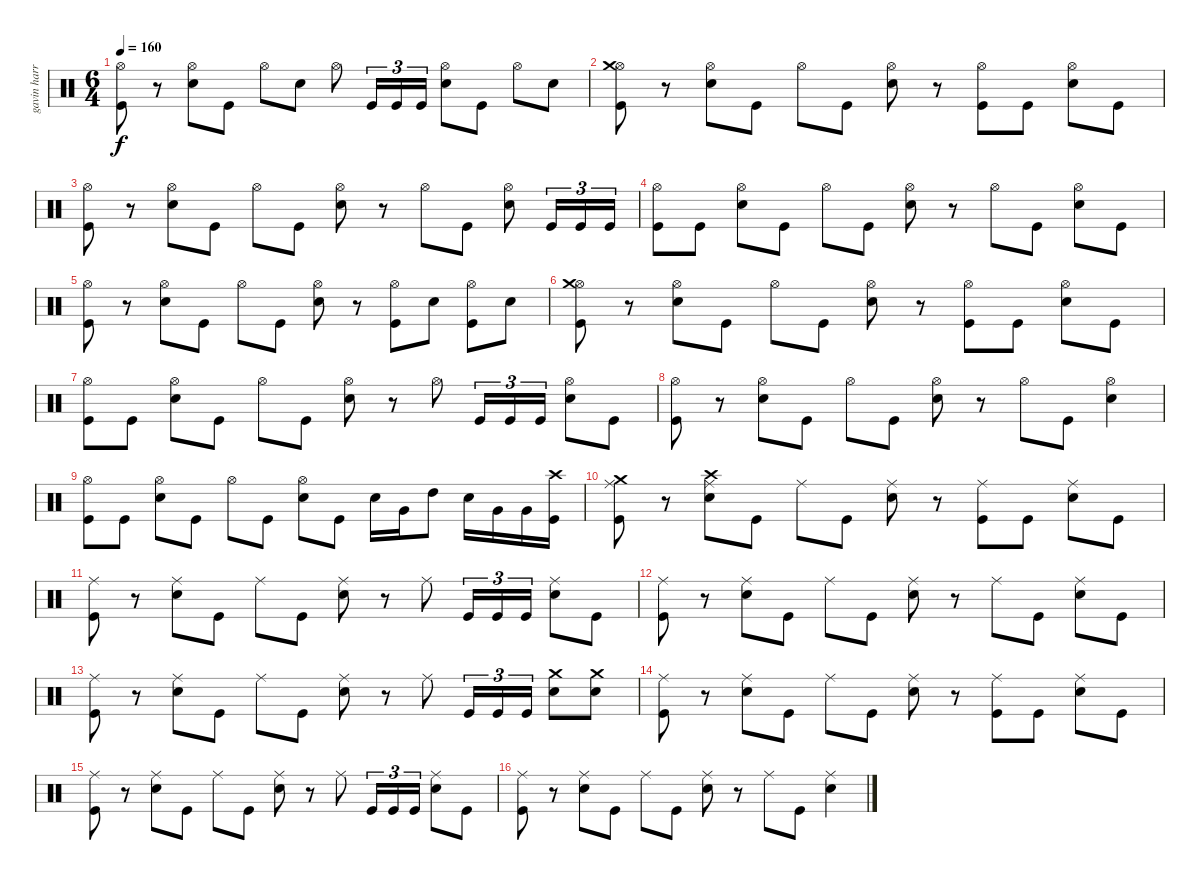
\track ("gavin harrison ( drum ) " "gavin harr") {instrument percussion}
\staff {score}
\articulation defaults
\ts (6 4)
\tempo 160
\clef neutral
\ks c
("Hi-Hat (open)" "Kick (hit)").8{dy f} r.8 ("Hi-Hat (open)" "Snare (hit) 2").8 "Kick (hit)".8 "Hi-Hat (open)".8 "Snare (hit) 2".8 "Hi-Hat (open)".8 "Kick (hit)".16{tu (3 2)} "Kick (hit)".16{tu (3 2)} "Kick (hit)".16{tu (3 2)} ("Hi-Hat (open)" "Snare (hit) 2").8 "Kick (hit)".8 "Hi-Hat (open)".8 "Snare (hit) 2".8 |
("Hi-Hat (open)" "Crash medium (hit)" "Kick (hit)").8 r.8 ("Hi-Hat (open)" "Snare (hit) 2").8 "Kick (hit)".8 "Hi-Hat (open)".8 "Kick (hit)".8 ("Hi-Hat (open)" "Snare (hit) 2").8 r.8 ("Hi-Hat (open)" "Kick (hit)").8 "Kick (hit)".8 ("Hi-Hat (open)" "Snare (hit) 2").8 "Kick (hit)".8 |
("Hi-Hat (open)" "Kick (hit)").8 r.8 ("Hi-Hat (open)" "Snare (hit) 2").8 "Kick (hit)".8 "Hi-Hat (open)".8 "Kick (hit)".8 ("Hi-Hat (open)" "Snare (hit) 2").8 r.8 "Hi-Hat (open)".8 "Kick (hit)".8 ("Hi-Hat (open)" "Snare (hit) 2").8 "Kick (hit)".16{tu (3 2)} "Kick (hit)".16{tu (3 2)} "Kick (hit)".16{tu (3 2)} |
("Hi-Hat (open)" "Kick (hit)").8 "Kick (hit)".8 ("Hi-Hat (open)" "Snare (hit) 2").8 "Kick (hit)".8 "Hi-Hat (open)".8 "Kick (hit)".8 ("Hi-Hat (open)" "Snare (hit) 2").8 r.8 "Hi-Hat (open)".8 "Kick (hit)".8 ("Hi-Hat (open)" "Snare (hit) 2").8 "Kick (hit)".8 |
("Hi-Hat (open)" "Kick (hit)").8 r.8 ("Hi-Hat (open)" "Snare (hit) 2").8 "Kick (hit)".8 "Hi-Hat (open)".8 "Kick (hit)".8 ("Hi-Hat (open)" "Snare (hit) 2").8 r.8 ("Hi-Hat (open)" "Kick (hit)").8 "Snare (hit) 2".8 ("Hi-Hat (open)" "Kick (hit)").8 "Snare (hit) 2".8 |
("Hi-Hat (open)" "Crash medium (hit)" "Kick (hit)").8 r.8 ("Hi-Hat (open)" "Snare (hit) 2").8 "Kick (hit)".8 "Hi-Hat (open)".8 "Kick (hit)".8 ("Hi-Hat (open)" "Snare (hit) 2").8 r.8 ("Hi-Hat (open)" "Kick (hit)").8 "Kick (hit)".8 ("Hi-Hat (open)" "Snare (hit) 2").8 "Kick (hit)".8 |
("Hi-Hat (open)" "Kick (hit)").8 "Kick (hit)".8 ("Hi-Hat (open)" "Snare (hit) 2").8 "Kick (hit)".8 "Hi-Hat (open)".8 "Kick (hit)".8 ("Hi-Hat (open)" "Snare (hit) 2").8 r.8 "Hi-Hat (open)".8 "Kick (hit)".16{tu (3 2)} "Kick (hit)".16{tu (3 2)} "Kick (hit)".16{tu (3 2)} ("Hi-Hat (open)" "Snare (hit) 2").8 "Kick (hit)".8 |
("Hi-Hat (open)" "Kick (hit)").8 r.8 ("Hi-Hat (open)" "Snare (hit) 2").8 "Kick (hit)".8 "Hi-Hat (open)".8 "Kick (hit)".8 ("Hi-Hat (open)" "Snare (hit) 2").8 r.8 "Hi-Hat (open)".8 "Kick (hit)".8 ("Hi-Hat (open)" "Snare (hit) 2").4 |
("Hi-Hat (open)" "Kick (hit)").8 "Kick (hit)".8 ("Hi-Hat (open)" "Snare (hit) 2").8 "Kick (hit)".8 "Hi-Hat (open)".8 "Kick (hit)".8 ("Hi-Hat (open)" "Snare (hit) 2").8 "Kick (hit)".8 "Snare (hit) 2".16 "Very Low Tom (hit)".16 "High Tom (hit)".8 "Snare (hit) 2".16 "Very Low Tom (hit)".16 "Very Low Tom (hit)".16 ("Crash high (hit)" "Kick (hit)").16 |
("Ride (middle)" "Crash medium (hit)" "Kick (hit)").8 r.8 ("Ride (middle)" "Crash high (hit)" "Snare (hit) 2").8 "Kick (hit)".8 "Ride (middle)".8 "Kick (hit)".8 ("Ride (middle)" "Snare (hit) 2").8 r.8 ("Ride (middle)" "Kick (hit)").8 "Kick (hit)".8 ("Ride (middle)" "Snare (hit) 2").8 "Kick (hit)".8 |
("Ride (middle)" "Kick (hit)").8 r.8 ("Ride (middle)" "Snare (hit) 2").8 "Kick (hit)".8 "Ride (middle)".8 "Kick (hit)".8 ("Ride (middle)" "Snare (hit) 2").8 r.8 "Ride (middle)".8 "Kick (hit)".16{tu (3 2)} "Kick (hit)".16{tu (3 2)} "Kick (hit)".16{tu (3 2)} ("Ride (middle)" "Snare (hit) 2").8 "Kick (hit)".8 |
("Ride (middle)" "Kick (hit)").8 r.8 ("Ride (middle)" "Snare (hit) 2").8 "Kick (hit)".8 "Ride (middle)".8 "Kick (hit)".8 ("Ride (middle)" "Snare (hit) 2").8 r.8 "Ride (middle)".8 "Kick (hit)".8 ("Ride (middle)" "Snare (hit) 2").8 "Kick (hit)".8 |
("Ride (middle)" "Kick (hit)").8 r.8 ("Ride (middle)" "Snare (hit) 2").8 "Kick (hit)".8 "Ride (middle)".8 "Kick (hit)".8 ("Ride (middle)" "Snare (hit) 2").8 r.8 "Ride (middle)".8 "Kick (hit)".16{tu (3 2)} "Kick (hit)".16{tu (3 2)} "Kick (hit)".16{tu (3 2)} ("Crash medium (hit)" "Snare (hit) 2").8 ("Crash medium (hit)" "Snare (hit) 2").8 |
("Ride (middle)" "Kick (hit)").8 r.8 ("Ride (middle)" "Snare (hit) 2").8 "Kick (hit)".8 "Ride (middle)".8 "Kick (hit)".8 ("Ride (middle)" "Snare (hit) 2").8 r.8 ("Ride (middle)" "Kick (hit)").8 "Kick (hit)".8 ("Ride (middle)" "Snare (hit) 2").8 "Kick (hit)".8 |
("Ride (middle)" "Kick (hit)").8 r.8 ("Ride (middle)" "Snare (hit) 2").8 "Kick (hit)".8 "Ride (middle)".8 "Kick (hit)".8 ("Ride (middle)" "Snare (hit) 2").8 r.8 "Ride (middle)".8 "Kick (hit)".16{tu (3 2)} "Kick (hit)".16{tu (3 2)} "Kick (hit)".16{tu (3 2)} ("Ride (middle)" "Snare (hit) 2").8 "Kick (hit)".8 |
("Ride (middle)" "Kick (hit)").8 r.8 ("Ride (middle)" "Snare (hit) 2").8 "Kick (hit)".8 "Ride (middle)".8 "Kick (hit)".8 ("Ride (middle)" "Snare (hit) 2").8 r.8 "Ride (middle)".8 "Kick (hit)".8 ("Ride (middle)" "Snare (hit) 2").4
